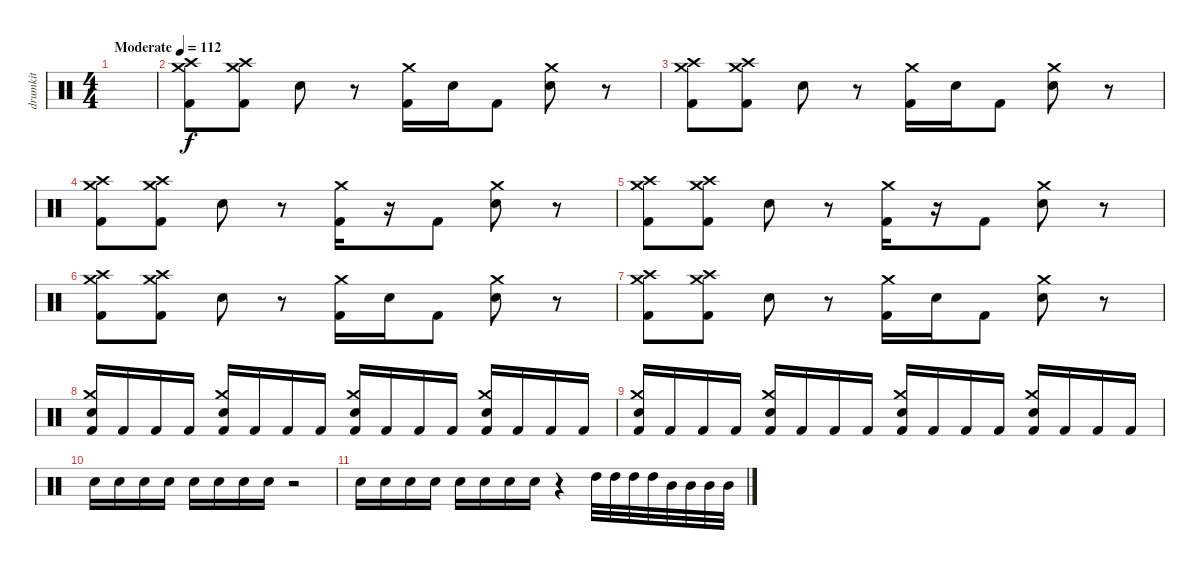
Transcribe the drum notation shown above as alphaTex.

\track ("drumkit" "drumkit") {instrument percussion}
\staff {score}
\articulation defaults
\ts (4 4)
\tempo (112 "Moderate")
\clef neutral
\ks c
|
("Kick (hit) 2" "Crash medium (hit)" "Crash high (hit)").8 ("Kick (hit) 2" "Crash medium (hit)" "Crash high (hit)").8 "Snare (hit) 2".8 r.8 ("Kick (hit) 2" "Crash medium (hit)").16 "Snare (hit) 2".16 "Kick (hit) 2".8 ("Snare (hit) 2" "Crash medium (hit)").8 r.8 |
("Kick (hit) 2" "Crash medium (hit)" "Crash high (hit)").8 ("Kick (hit) 2" "Crash medium (hit)" "Crash high (hit)").8 "Snare (hit) 2".8 r.8 ("Kick (hit) 2" "Crash medium (hit)").16 "Snare (hit) 2".16 "Kick (hit) 2".8 ("Snare (hit) 2" "Crash medium (hit)").8 r.8 |
("Kick (hit) 2" "Crash medium (hit)" "Crash high (hit)").8 ("Kick (hit) 2" "Crash medium (hit)" "Crash high (hit)").8 "Snare (hit) 2".8 r.8 ("Kick (hit) 2" "Crash medium (hit)").16 r.16 "Kick (hit) 2".8 ("Snare (hit) 2" "Crash medium (hit)").8 r.8 |
("Kick (hit) 2" "Crash medium (hit)" "Crash high (hit)").8 ("Kick (hit) 2" "Crash medium (hit)" "Crash high (hit)").8 "Snare (hit) 2".8 r.8 ("Kick (hit) 2" "Crash medium (hit)").16 r.16 "Kick (hit) 2".8 ("Snare (hit) 2" "Crash medium (hit)").8 r.8 |
("Kick (hit) 2" "Crash medium (hit)" "Crash high (hit)").8 ("Kick (hit) 2" "Crash medium (hit)" "Crash high (hit)").8 "Snare (hit) 2".8 r.8 ("Kick (hit) 2" "Crash medium (hit)").16 "Snare (hit) 2".16 "Kick (hit) 2".8 ("Snare (hit) 2" "Crash medium (hit)").8 r.8 |
("Kick (hit) 2" "Crash medium (hit)" "Crash high (hit)").8 ("Kick (hit) 2" "Crash medium (hit)" "Crash high (hit)").8 "Snare (hit) 2".8 r.8 ("Kick (hit) 2" "Crash medium (hit)").16 "Snare (hit) 2".16 "Kick (hit) 2".8 ("Snare (hit) 2" "Crash medium (hit)").8 r.8 |
("Kick (hit) 2" "Snare (hit) 2" "Crash medium (hit)").16 "Kick (hit) 2".16 "Kick (hit) 2".16 "Kick (hit) 2".16 ("Kick (hit) 2" "Snare (hit) 2" "Crash medium (hit)").16 "Kick (hit) 2".16 "Kick (hit) 2".16 "Kick (hit) 2".16 ("Kick (hit) 2" "Snare (hit) 2" "Crash medium (hit)").16 "Kick (hit) 2".16 "Kick (hit) 2".16 "Kick (hit) 2".16 ("Kick (hit) 2" "Snare (hit) 2" "Crash medium (hit)").16 "Kick (hit) 2".16 "Kick (hit) 2".16 "Kick (hit) 2".16 |
("Kick (hit) 2" "Snare (hit) 2" "Crash medium (hit)").16 "Kick (hit) 2".16 "Kick (hit) 2".16 "Kick (hit) 2".16 ("Kick (hit) 2" "Snare (hit) 2" "Crash medium (hit)").16 "Kick (hit) 2".16 "Kick (hit) 2".16 "Kick (hit) 2".16 ("Kick (hit) 2" "Snare (hit) 2" "Crash medium (hit)").16 "Kick (hit) 2".16 "Kick (hit) 2".16 "Kick (hit) 2".16 ("Kick (hit) 2" "Snare (hit) 2" "Crash medium (hit)").16 "Kick (hit) 2".16 "Kick (hit) 2".16 "Kick (hit) 2".16 |
"Snare (hit) 2".16 "Snare (hit) 2".16 "Snare (hit) 2".16 "Snare (hit) 2".16 "Snare (hit) 2".16 "Snare (hit) 2".16 "Snare (hit) 2".16 "Snare (hit) 2".16 r.2 |
"Snare (hit) 2".16 "Snare (hit) 2".16 "Snare (hit) 2".16 "Snare (hit) 2".16 "Snare (hit) 2".16 "Snare (hit) 2".16 "Snare (hit) 2".16 "Snare (hit) 2".16 r.4 "High Tom (hit)".32 "High Tom (hit)".32 "High Tom (hit)".32 "High Tom (hit)".32 "Mid Tom (hit)".32 "Mid Tom (hit)".32 "Mid Tom (hit)".32 "Mid Tom (hit)".32
